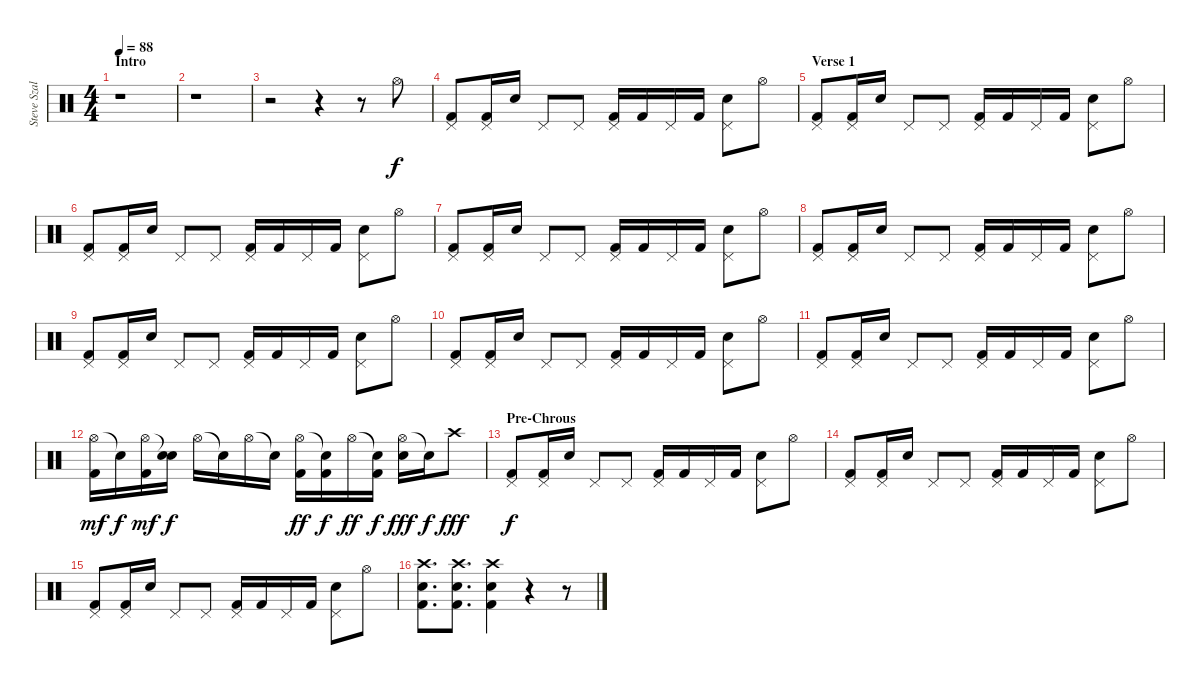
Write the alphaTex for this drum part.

\track ("Steve Szalay " "Steve Szal") {instrument percussion}
\staff {score}
\articulation defaults
\ts (4 4)
\section ("" "Intro")
\tempo 88
\clef neutral
\ks c
r.1{dy f} |
r.1 |
r.2 r.4 r.8 "Hi-Hat (open)".8 |
("Pedal Hi-Hat (hit)" "Kick (hit) 2").8 ("Pedal Hi-Hat (hit)" "Kick (hit) 2").16 "Electric Snare (hit)".16 "Pedal Hi-Hat (hit)".8 "Pedal Hi-Hat (hit)".8 ("Pedal Hi-Hat (hit)" "Kick (hit) 2").16 "Kick (hit) 2".16 "Pedal Hi-Hat (hit)".16 "Kick (hit) 2".16 ("Pedal Hi-Hat (hit)" "Electric Snare (hit)").8 "Hi-Hat (open)".8 |
\section ("" "Verse 1")
("Pedal Hi-Hat (hit)" "Kick (hit) 2").8 ("Pedal Hi-Hat (hit)" "Kick (hit) 2").16 "Electric Snare (hit)".16 "Pedal Hi-Hat (hit)".8 "Pedal Hi-Hat (hit)".8 ("Pedal Hi-Hat (hit)" "Kick (hit) 2").16 "Kick (hit) 2".16 "Pedal Hi-Hat (hit)".16 "Kick (hit) 2".16 ("Pedal Hi-Hat (hit)" "Electric Snare (hit)").8 "Hi-Hat (open)".8 |
("Pedal Hi-Hat (hit)" "Kick (hit) 2").8 ("Pedal Hi-Hat (hit)" "Kick (hit) 2").16 "Electric Snare (hit)".16 "Pedal Hi-Hat (hit)".8 "Pedal Hi-Hat (hit)".8 ("Pedal Hi-Hat (hit)" "Kick (hit) 2").16 "Kick (hit) 2".16 "Pedal Hi-Hat (hit)".16 "Kick (hit) 2".16 ("Pedal Hi-Hat (hit)" "Electric Snare (hit)").8 "Hi-Hat (open)".8 |
("Pedal Hi-Hat (hit)" "Kick (hit) 2").8 ("Pedal Hi-Hat (hit)" "Kick (hit) 2").16 "Electric Snare (hit)".16 "Pedal Hi-Hat (hit)".8 "Pedal Hi-Hat (hit)".8 ("Pedal Hi-Hat (hit)" "Kick (hit) 2").16 "Kick (hit) 2".16 "Pedal Hi-Hat (hit)".16 "Kick (hit) 2".16 ("Pedal Hi-Hat (hit)" "Electric Snare (hit)").8 "Hi-Hat (open)".8 |
("Pedal Hi-Hat (hit)" "Kick (hit) 2").8 ("Pedal Hi-Hat (hit)" "Kick (hit) 2").16 "Electric Snare (hit)".16 "Pedal Hi-Hat (hit)".8 "Pedal Hi-Hat (hit)".8 ("Pedal Hi-Hat (hit)" "Kick (hit) 2").16 "Kick (hit) 2".16 "Pedal Hi-Hat (hit)".16 "Kick (hit) 2".16 ("Pedal Hi-Hat (hit)" "Electric Snare (hit)").8 "Hi-Hat (open)".8 |
("Pedal Hi-Hat (hit)" "Kick (hit) 2").8 ("Pedal Hi-Hat (hit)" "Kick (hit) 2").16 "Electric Snare (hit)".16 "Pedal Hi-Hat (hit)".8 "Pedal Hi-Hat (hit)".8 ("Pedal Hi-Hat (hit)" "Kick (hit) 2").16 "Kick (hit) 2".16 "Pedal Hi-Hat (hit)".16 "Kick (hit) 2".16 ("Pedal Hi-Hat (hit)" "Electric Snare (hit)").8 "Hi-Hat (open)".8 |
("Pedal Hi-Hat (hit)" "Kick (hit) 2").8 ("Pedal Hi-Hat (hit)" "Kick (hit) 2").16 "Electric Snare (hit)".16 "Pedal Hi-Hat (hit)".8 "Pedal Hi-Hat (hit)".8 ("Pedal Hi-Hat (hit)" "Kick (hit) 2").16 "Kick (hit) 2".16 "Pedal Hi-Hat (hit)".16 "Kick (hit) 2".16 ("Pedal Hi-Hat (hit)" "Electric Snare (hit)").8 "Hi-Hat (open)".8 |
("Pedal Hi-Hat (hit)" "Kick (hit) 2").8 ("Pedal Hi-Hat (hit)" "Kick (hit) 2").16 "Electric Snare (hit)".16 "Pedal Hi-Hat (hit)".8 "Pedal Hi-Hat (hit)".8 ("Pedal Hi-Hat (hit)" "Kick (hit) 2").16 "Kick (hit) 2".16 "Pedal Hi-Hat (hit)".16 "Kick (hit) 2".16 ("Pedal Hi-Hat (hit)" "Electric Snare (hit)").8 "Hi-Hat (open)".8 |
("Hi-Hat (open)" "Kick (hit) 2").16{dy mf} "Snare (hit)"{t}.16{dy f} ("Hi-Hat (open)" "Kick (hit) 2").16{dy mf} ("Snare (hit)"{t} "Electric Snare (hit)").16{dy f} "Hi-Hat (open)".16 "Snare (hit)"{t}.16 "Hi-Hat (open)".16 "Snare (hit)"{t}.16 ("Hi-Hat (open)" "Kick (hit) 2").16{dy ff} ("Snare (hit)"{t} "Kick (hit) 2").16{dy f} "Hi-Hat (open)".16{dy ff} ("Snare (hit)"{t} "Kick (hit) 2").16{dy f} ("Hi-Hat (open)" "Electric Snare (hit)").16{dy fff} "Snare (hit)"{t}.16{dy f} "Crash high (hit)".8{dy fff} |
\section ("" "Pre-Chrous")
("Pedal Hi-Hat (hit)" "Kick (hit) 2").8{dy f} ("Pedal Hi-Hat (hit)" "Kick (hit) 2").16 "Electric Snare (hit)".16 "Pedal Hi-Hat (hit)".8 "Pedal Hi-Hat (hit)".8 ("Pedal Hi-Hat (hit)" "Kick (hit) 2").16 "Kick (hit) 2".16 "Pedal Hi-Hat (hit)".16 "Kick (hit) 2".16 ("Pedal Hi-Hat (hit)" "Electric Snare (hit)").8 "Hi-Hat (open)".8 |
("Pedal Hi-Hat (hit)" "Kick (hit) 2").8 ("Pedal Hi-Hat (hit)" "Kick (hit) 2").16 "Electric Snare (hit)".16 "Pedal Hi-Hat (hit)".8 "Pedal Hi-Hat (hit)".8 ("Pedal Hi-Hat (hit)" "Kick (hit) 2").16 "Kick (hit) 2".16 "Pedal Hi-Hat (hit)".16 "Kick (hit) 2".16 ("Pedal Hi-Hat (hit)" "Electric Snare (hit)").8 "Hi-Hat (open)".8 |
("Pedal Hi-Hat (hit)" "Kick (hit) 2").8 ("Pedal Hi-Hat (hit)" "Kick (hit) 2").16 "Electric Snare (hit)".16 "Pedal Hi-Hat (hit)".8 "Pedal Hi-Hat (hit)".8 ("Pedal Hi-Hat (hit)" "Kick (hit) 2").16 "Kick (hit) 2".16 "Pedal Hi-Hat (hit)".16 "Kick (hit) 2".16 ("Pedal Hi-Hat (hit)" "Electric Snare (hit)").8 "Hi-Hat (open)".8 |
("Crash high (hit)" "Electric Snare (hit)" "Kick (hit) 2").8{d} ("Crash high (hit)" "Electric Snare (hit)" "Kick (hit) 2").8{d} ("Crash high (hit)" "Electric Snare (hit)" "Kick (hit) 2").4 r.4 r.8
